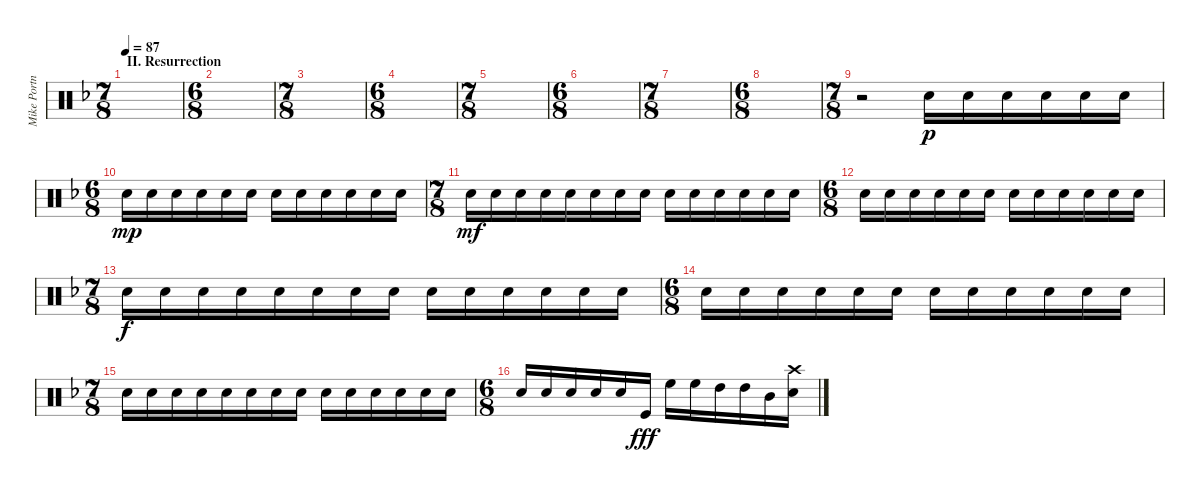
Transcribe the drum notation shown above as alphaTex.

\track ("Mike Portnoy - Drums" "Mike Portn") {instrument percussion}
\staff {score}
\articulation defaults
\ts (7 8)
\section ("" "II. Resurrection")
\tempo 87
\clef neutral
\ks dminor
|
\ts (6 8)
|
\ts (7 8)
|
\ts (6 8)
|
\ts (7 8)
|
\ts (6 8)
|
\ts (7 8)
|
\ts (6 8)
|
\ts (7 8)
r.2{volume 13} "Snare (hit) 2".16{dy p} "Snare (hit) 2".16 "Snare (hit) 2".16 "Snare (hit) 2".16 "Snare (hit) 2".16 "Snare (hit) 2".16 |
\ts (6 8)
"Snare (hit) 2".16{dy mp} "Snare (hit) 2".16 "Snare (hit) 2".16 "Snare (hit) 2".16 "Snare (hit) 2".16 "Snare (hit) 2".16 "Snare (hit) 2".16 "Snare (hit) 2".16 "Snare (hit) 2".16 "Snare (hit) 2".16 "Snare (hit) 2".16 "Snare (hit) 2".16 |
\ts (7 8)
"Snare (hit) 2".16{dy mf} "Snare (hit) 2".16 "Snare (hit) 2".16 "Snare (hit) 2".16 "Snare (hit) 2".16 "Snare (hit) 2".16 "Snare (hit) 2".16 "Snare (hit) 2".16 "Snare (hit) 2".16 "Snare (hit) 2".16 "Snare (hit) 2".16 "Snare (hit) 2".16 "Snare (hit) 2".16 "Snare (hit) 2".16 |
\ts (6 8)
"Snare (hit) 2".16 "Snare (hit) 2".16 "Snare (hit) 2".16 "Snare (hit) 2".16 "Snare (hit) 2".16 "Snare (hit) 2".16 "Snare (hit) 2".16 "Snare (hit) 2".16 "Snare (hit) 2".16 "Snare (hit) 2".16 "Snare (hit) 2".16 "Snare (hit) 2".16 |
\ts (7 8)
"Snare (hit) 2".16{dy f} "Snare (hit) 2".16 "Snare (hit) 2".16 "Snare (hit) 2".16 "Snare (hit) 2".16 "Snare (hit) 2".16 "Snare (hit) 2".16 "Snare (hit) 2".16 "Snare (hit) 2".16 "Snare (hit) 2".16 "Snare (hit) 2".16 "Snare (hit) 2".16 "Snare (hit) 2".16 "Snare (hit) 2".16 |
\ts (6 8)
"Snare (hit) 2".16 "Snare (hit) 2".16 "Snare (hit) 2".16 "Snare (hit) 2".16 "Snare (hit) 2".16 "Snare (hit) 2".16 "Snare (hit) 2".16 "Snare (hit) 2".16 "Snare (hit) 2".16 "Snare (hit) 2".16 "Snare (hit) 2".16 "Snare (hit) 2".16 |
\ts (7 8)
"Snare (hit) 2".16 "Snare (hit) 2".16 "Snare (hit) 2".16 "Snare (hit) 2".16 "Snare (hit) 2".16 "Snare (hit) 2".16 "Snare (hit) 2".16 "Snare (hit) 2".16 "Snare (hit) 2".16 "Snare (hit) 2".16 "Snare (hit) 2".16 "Snare (hit) 2".16 "Snare (hit) 2".16 "Snare (hit) 2".16 |
\ts (6 8)
"Snare (hit) 2".16 "Snare (hit) 2".16 "Snare (hit) 2".16 "Snare (hit) 2".16 "Snare (hit) 2".16 "Kick (hit)".16{dy fff} "High Floor Tom (hit)".16 "High Floor Tom (hit)".16 "High Tom (hit)".16 "High Tom (hit)".16 "Mid Tom (hit)".16 ("Crash high (hit)" "Snare (hit) 2").16
